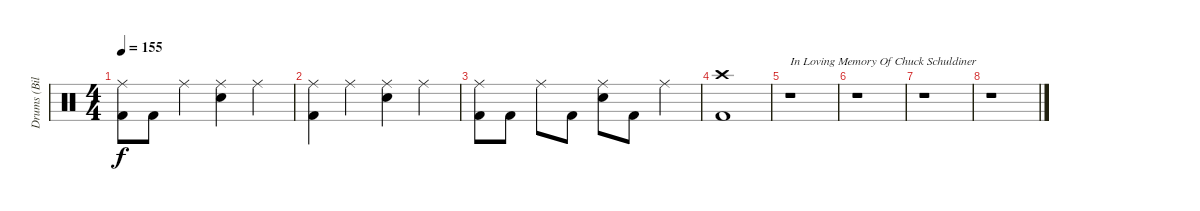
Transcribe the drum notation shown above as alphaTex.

\track ("Drums (Bill Andrews)" "Drums (Bil") {instrument percussion}
\staff
\articulation defaults
\ts (4 4)
\tempo 155
\clef neutral
\ks c
("Ride (middle)" "Kick (hit) 2").8{dy f} "Kick (hit) 2".8 "Ride (middle)".4 ("Ride (middle)" "Electric Snare (hit)").4 "Ride (middle)".4 |
("Ride (middle)" "Kick (hit) 2").4 "Ride (middle)".4 ("Ride (middle)" "Electric Snare (hit)").4 "Ride (middle)".4 |
("Ride (middle)" "Kick (hit) 2").8 "Kick (hit) 2".8 "Ride (middle)".8 "Kick (hit) 2".8 ("Ride (middle)" "Electric Snare (hit)").8 "Kick (hit) 2".8 "Ride (middle)".4 |
("Crash high (hit)" "Kick (hit) 2").1 |
r.1{txt "In Loving Memory Of Chuck Schuldiner "} |
r.1 |
r.1 |
r.1
